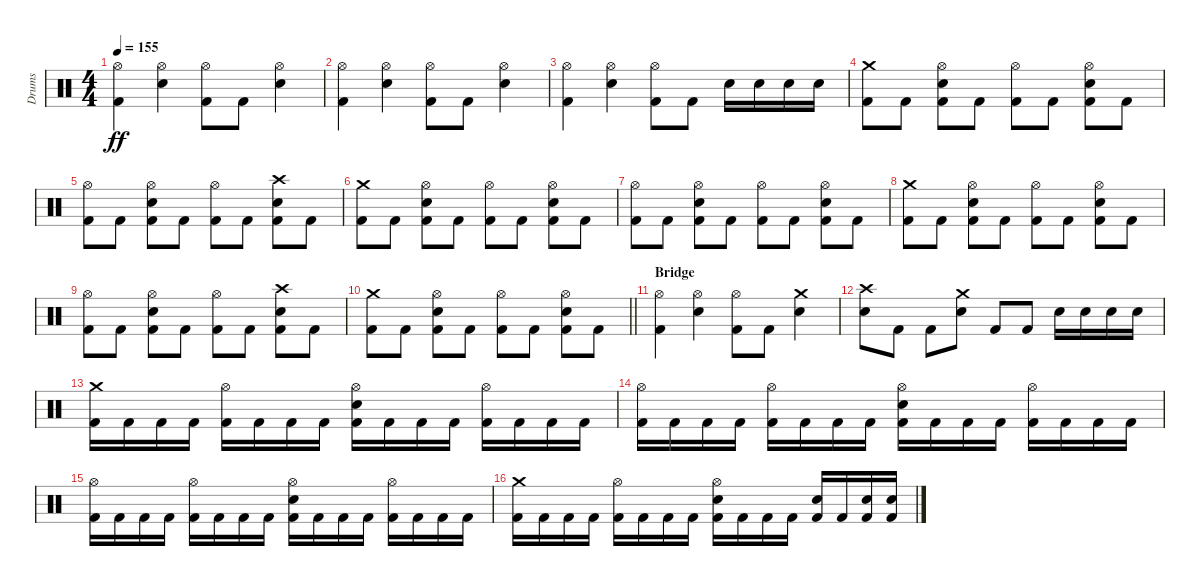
\track ("Drums" "Drums") {solo instrument percussion}
\staff {score}
\articulation defaults
\ts (4 4)
\tempo 155
\clef neutral
\ks c
("Hi-Hat (open)" "Kick (hit) 2").4{dy ff} ("Hi-Hat (open)" "Electric Snare (hit)").4 ("Hi-Hat (open)" "Kick (hit) 2").8 "Kick (hit) 2".8 ("Hi-Hat (open)" "Electric Snare (hit)").4 |
("Hi-Hat (open)" "Kick (hit) 2").4 ("Hi-Hat (open)" "Electric Snare (hit)").4 ("Hi-Hat (open)" "Kick (hit) 2").8 "Kick (hit) 2".8 ("Hi-Hat (open)" "Electric Snare (hit)").4 |
("Hi-Hat (open)" "Kick (hit) 2").4 ("Hi-Hat (open)" "Electric Snare (hit)").4 ("Hi-Hat (open)" "Kick (hit) 2").8 "Kick (hit) 2".8 "Electric Snare (hit)".16 "Electric Snare (hit)".16 "Electric Snare (hit)".16 "Electric Snare (hit)".16 |
("Crash medium (hit)" "Kick (hit) 2").8 "Kick (hit) 2".8 ("Hi-Hat (open)" "Electric Snare (hit)" "Kick (hit) 2").8 "Kick (hit) 2".8 ("Hi-Hat (open)" "Kick (hit) 2").8 "Kick (hit) 2".8 ("Electric Snare (hit)" "Hi-Hat (open)" "Kick (hit) 2").8 "Kick (hit) 2".8 |
("Hi-Hat (open)" "Kick (hit) 2").8 "Kick (hit) 2".8 ("Hi-Hat (open)" "Electric Snare (hit)" "Kick (hit) 2").8 "Kick (hit) 2".8 ("Hi-Hat (open)" "Kick (hit) 2").8 "Kick (hit) 2".8 ("Electric Snare (hit)" "Crash high (hit)" "Kick (hit) 2").8 "Kick (hit) 2".8 |
("Crash medium (hit)" "Kick (hit) 2").8 "Kick (hit) 2".8 ("Hi-Hat (open)" "Electric Snare (hit)" "Kick (hit) 2").8 "Kick (hit) 2".8 ("Hi-Hat (open)" "Kick (hit) 2").8 "Kick (hit) 2".8 ("Electric Snare (hit)" "Hi-Hat (open)" "Kick (hit) 2").8 "Kick (hit) 2".8 |
("Hi-Hat (open)" "Kick (hit) 2").8 "Kick (hit) 2".8 ("Hi-Hat (open)" "Electric Snare (hit)" "Kick (hit) 2").8 "Kick (hit) 2".8 ("Hi-Hat (open)" "Kick (hit) 2").8 "Kick (hit) 2".8 ("Electric Snare (hit)" "Hi-Hat (open)" "Kick (hit) 2").8 "Kick (hit) 2".8 |
("Crash medium (hit)" "Kick (hit) 2").8 "Kick (hit) 2".8 ("Hi-Hat (open)" "Electric Snare (hit)" "Kick (hit) 2").8 "Kick (hit) 2".8 ("Hi-Hat (open)" "Kick (hit) 2").8 "Kick (hit) 2".8 ("Electric Snare (hit)" "Hi-Hat (open)" "Kick (hit) 2").8 "Kick (hit) 2".8 |
("Hi-Hat (open)" "Kick (hit) 2").8 "Kick (hit) 2".8 ("Hi-Hat (open)" "Electric Snare (hit)" "Kick (hit) 2").8 "Kick (hit) 2".8 ("Hi-Hat (open)" "Kick (hit) 2").8 "Kick (hit) 2".8 ("Electric Snare (hit)" "Crash high (hit)" "Kick (hit) 2").8 "Kick (hit) 2".8 |
\barLineRight lightlight
("Crash medium (hit)" "Kick (hit) 2").8 "Kick (hit) 2".8 ("Hi-Hat (open)" "Electric Snare (hit)" "Kick (hit) 2").8 "Kick (hit) 2".8 ("Hi-Hat (open)" "Kick (hit) 2").8 "Kick (hit) 2".8 ("Electric Snare (hit)" "Hi-Hat (open)" "Kick (hit) 2").8 "Kick (hit) 2".8 |
\section ("" "Bridge")
("Hi-Hat (open)" "Kick (hit) 2").4 ("Hi-Hat (open)" "Electric Snare (hit)").4 ("Hi-Hat (open)" "Kick (hit) 2").8 "Kick (hit) 2".8 ("Crash medium (hit)" "Electric Snare (hit)").4 |
("Crash high (hit)" "Electric Snare (hit)").8 "Kick (hit) 2".8 "Kick (hit) 2".8 ("Crash medium (hit)" "Electric Snare (hit)").8 "Kick (hit) 2".8 "Kick (hit) 2".8 "Electric Snare (hit)".16 "Electric Snare (hit)".16 "Electric Snare (hit)".16 "Electric Snare (hit)".16 |
("Crash medium (hit)" "Kick (hit) 2").16 "Kick (hit) 2".16 "Kick (hit) 2".16 "Kick (hit) 2".16 ("Hi-Hat (open)" "Kick (hit) 2").16 "Kick (hit) 2".16 "Kick (hit) 2".16 "Kick (hit) 2".16 ("Electric Snare (hit)" "Hi-Hat (open)" "Kick (hit) 2").16 "Kick (hit) 2".16 "Kick (hit) 2".16 "Kick (hit) 2".16 ("Hi-Hat (open)" "Kick (hit) 2").16 "Kick (hit) 2".16 "Kick (hit) 2".16 "Kick (hit) 2".16 |
("Hi-Hat (open)" "Kick (hit) 2").16 "Kick (hit) 2".16 "Kick (hit) 2".16 "Kick (hit) 2".16 ("Hi-Hat (open)" "Kick (hit) 2").16 "Kick (hit) 2".16 "Kick (hit) 2".16 "Kick (hit) 2".16 ("Electric Snare (hit)" "Hi-Hat (open)" "Kick (hit) 2").16 "Kick (hit) 2".16 "Kick (hit) 2".16 "Kick (hit) 2".16 ("Hi-Hat (open)" "Kick (hit) 2").16 "Kick (hit) 2".16 "Kick (hit) 2".16 "Kick (hit) 2".16 |
("Hi-Hat (open)" "Kick (hit) 2").16 "Kick (hit) 2".16 "Kick (hit) 2".16 "Kick (hit) 2".16 ("Hi-Hat (open)" "Kick (hit) 2").16 "Kick (hit) 2".16 "Kick (hit) 2".16 "Kick (hit) 2".16 ("Electric Snare (hit)" "Hi-Hat (open)" "Kick (hit) 2").16 "Kick (hit) 2".16 "Kick (hit) 2".16 "Kick (hit) 2".16 ("Hi-Hat (open)" "Kick (hit) 2").16 "Kick (hit) 2".16 "Kick (hit) 2".16 "Kick (hit) 2".16 |
("Crash medium (hit)" "Kick (hit) 2").16 "Kick (hit) 2".16 "Kick (hit) 2".16 "Kick (hit) 2".16 ("Hi-Hat (open)" "Kick (hit) 2").16 "Kick (hit) 2".16 "Kick (hit) 2".16 "Kick (hit) 2".16 ("Electric Snare (hit)" "Hi-Hat (open)" "Kick (hit) 2").16 "Kick (hit) 2".16 "Kick (hit) 2".16 "Kick (hit) 2".16 ("Electric Snare (hit)" "Kick (hit) 2").16 "Kick (hit) 2".16 ("Electric Snare (hit)" "Kick (hit) 2").16 ("Electric Snare (hit)" "Kick (hit) 2").16
